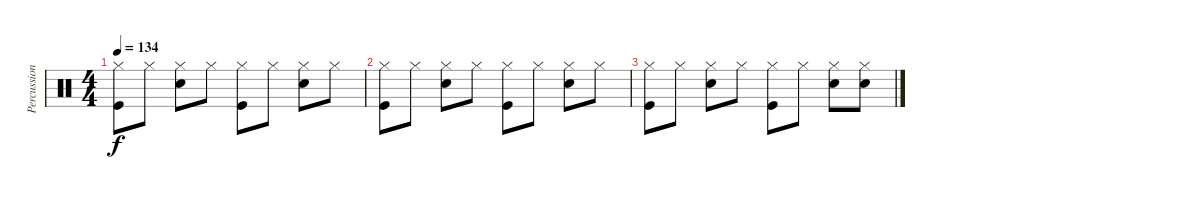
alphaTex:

\track ("Percussion" "Percussion") {instrument percussion}
\staff {score}
\articulation defaults
\ts (4 4)
\tempo 134
\clef neutral
\ks c
("Hi-Hat (closed)" "Kick (hit)").8{dy f} "Hi-Hat (closed)".8 ("Hi-Hat (closed)" "Snare (hit) 2").8 "Hi-Hat (closed)".8 ("Hi-Hat (closed)" "Kick (hit)").8 "Hi-Hat (closed)".8 ("Hi-Hat (closed)" "Snare (hit) 2").8 "Hi-Hat (closed)".8 |
("Hi-Hat (closed)" "Kick (hit)").8 "Hi-Hat (closed)".8 ("Hi-Hat (closed)" "Snare (hit) 2").8 "Hi-Hat (closed)".8 ("Hi-Hat (closed)" "Kick (hit)").8 "Hi-Hat (closed)".8 ("Hi-Hat (closed)" "Snare (hit) 2").8 "Hi-Hat (closed)".8 |
("Hi-Hat (closed)" "Kick (hit)").8 "Hi-Hat (closed)".8 ("Hi-Hat (closed)" "Snare (hit) 2").8 "Hi-Hat (closed)".8 ("Hi-Hat (closed)" "Kick (hit)").8 "Hi-Hat (closed)".8 ("Hi-Hat (closed)" "Snare (hit) 2").8 ("Hi-Hat (closed)" "Snare (hit) 2").8
